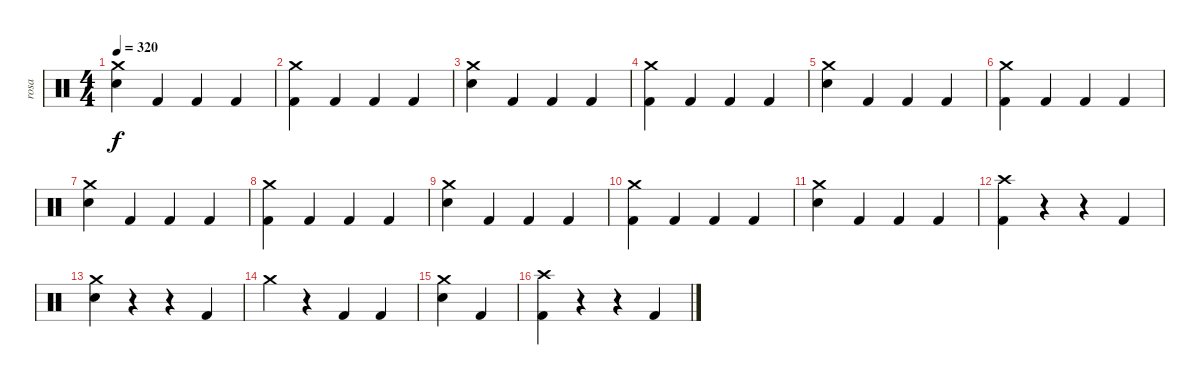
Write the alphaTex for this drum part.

\track ("rosa" "rosa") {instrument percussion}
\staff {score}
\articulation defaults
\ts (4 4)
\tempo 320
\clef neutral
\ks c
("Crash medium (hit)" "Electric Snare (hit)").4{dy f} "Kick (hit) 2".4 "Kick (hit) 2".4 "Kick (hit) 2".4 |
("Crash medium (hit)" "Kick (hit) 2").4 "Kick (hit) 2".4 "Kick (hit) 2".4 "Kick (hit) 2".4 |
("Crash medium (hit)" "Electric Snare (hit)").4 "Kick (hit) 2".4 "Kick (hit) 2".4 "Kick (hit) 2".4 |
("Crash medium (hit)" "Kick (hit) 2").4 "Kick (hit) 2".4 "Kick (hit) 2".4 "Kick (hit) 2".4 |
("Crash medium (hit)" "Electric Snare (hit)").4 "Kick (hit) 2".4 "Kick (hit) 2".4 "Kick (hit) 2".4 |
("Crash medium (hit)" "Kick (hit) 2").4 "Kick (hit) 2".4 "Kick (hit) 2".4 "Kick (hit) 2".4 |
("Crash medium (hit)" "Electric Snare (hit)").4 "Kick (hit) 2".4 "Kick (hit) 2".4 "Kick (hit) 2".4 |
("Crash medium (hit)" "Kick (hit) 2").4 "Kick (hit) 2".4 "Kick (hit) 2".4 "Kick (hit) 2".4 |
("Crash medium (hit)" "Electric Snare (hit)").4 "Kick (hit) 2".4 "Kick (hit) 2".4 "Kick (hit) 2".4 |
("Crash medium (hit)" "Kick (hit) 2").4 "Kick (hit) 2".4 "Kick (hit) 2".4 "Kick (hit) 2".4 |
("Crash medium (hit)" "Electric Snare (hit)").4 "Kick (hit) 2".4 "Kick (hit) 2".4 "Kick (hit) 2".4 |
("Crash high (hit)" "Kick (hit) 2").4 r.4 r.4 "Kick (hit) 2".4 |
("Crash medium (hit)" "Electric Snare (hit)").4 r.4 r.4 "Kick (hit) 2".4 |
"Crash medium (hit)".4 r.4 "Kick (hit) 2".4 "Kick (hit) 2".4 |
("Crash medium (hit)" "Electric Snare (hit)").4 "Kick (hit) 2".4 |
("Crash high (hit)" "Kick (hit) 2").4 r.4 r.4 "Kick (hit) 2".4
